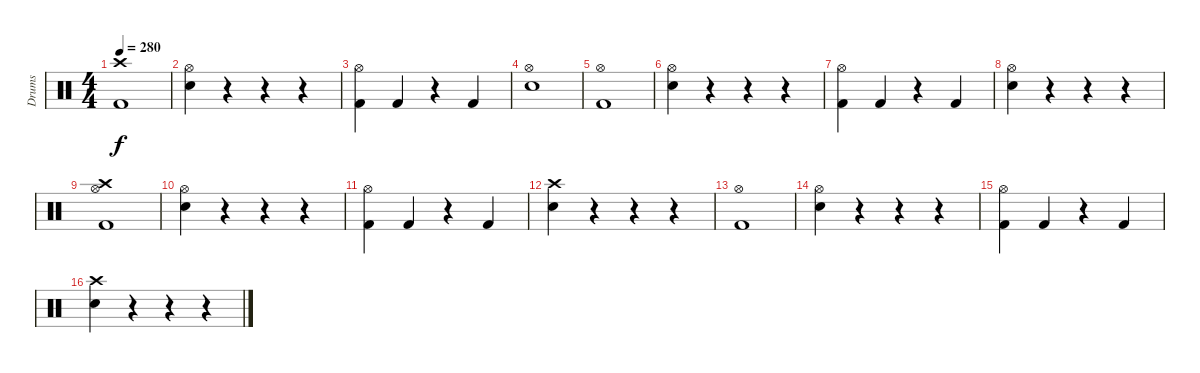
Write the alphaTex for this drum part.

\track ("Drums" "Drums") {instrument percussion}
\staff {score}
\articulation defaults
\ts (4 4)
\tempo 280
\clef neutral
\ks c
("Crash high (hit)" "Kick (hit) 2").1{dy f} |
("Hi-Hat (open)" "Electric Snare (hit)").4 r.4 r.4 r.4 |
("Hi-Hat (open)" "Kick (hit) 2").4 "Kick (hit) 2".4 r.4 "Kick (hit) 2".4 |
("Hi-Hat (open)" "Electric Snare (hit)").1 |
("Hi-Hat (open)" "Kick (hit) 2").1 |
("Hi-Hat (open)" "Electric Snare (hit)").4 r.4 r.4 r.4 |
("Hi-Hat (open)" "Kick (hit) 2").4 "Kick (hit) 2".4 r.4 "Kick (hit) 2".4 |
("Hi-Hat (open)" "Electric Snare (hit)").4 r.4 r.4 r.4 |
("Hi-Hat (open)" "Crash high (hit)" "Kick (hit) 2").1 |
("Hi-Hat (open)" "Electric Snare (hit)").4 r.4 r.4 r.4 |
("Hi-Hat (open)" "Kick (hit) 2").4 "Kick (hit) 2".4 r.4 "Kick (hit) 2".4 |
("Crash high (hit)" "Electric Snare (hit)").4 r.4 r.4 r.4 |
("Hi-Hat (open)" "Kick (hit) 2").1 |
("Hi-Hat (open)" "Electric Snare (hit)").4 r.4 r.4 r.4 |
("Hi-Hat (open)" "Kick (hit) 2").4 "Kick (hit) 2".4 r.4 "Kick (hit) 2".4 |
("Crash high (hit)" "Electric Snare (hit)").4 r.4 r.4 r.4
